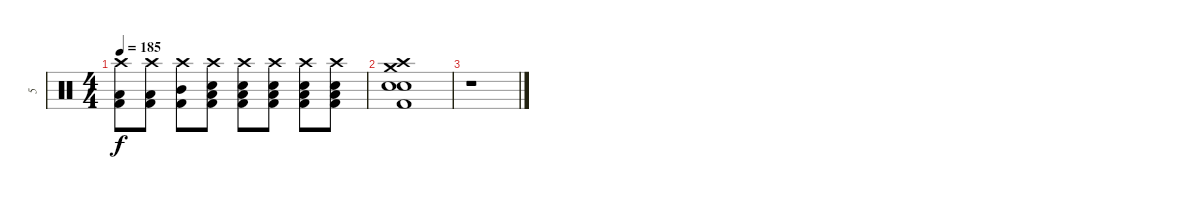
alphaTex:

\track ("5" "5") {instrument percussion}
\staff {score}
\articulation defaults
\ts (4 4)
\tempo 185
\clef neutral
\ks c
("Crash high (hit)" "Kick (hit) 2" "Low Tom (hit)").8{dy f} ("Crash high (hit)" "Kick (hit) 2" "Low Tom (hit)").8 ("Crash high (hit)" "Kick (hit) 2" "Mid Tom (hit)").8 ("Crash high (hit)" "Kick (hit) 2" "Low Tom (hit)" "Electric Snare (hit)").8 ("Crash high (hit)" "Kick (hit) 2" "Low Tom (hit)" "Electric Snare (hit)").8 ("Crash high (hit)" "Kick (hit) 2" "Low Tom (hit)" "Electric Snare (hit)").8 ("Crash high (hit)" "Kick (hit) 2" "Low Tom (hit)" "Electric Snare (hit)").8 ("Crash high (hit)" "Kick (hit) 2" "Low Tom (hit)" "Electric Snare (hit)").8 |
("Crash medium (hit)" "Kick (hit) 2" "Snare (hit) 2" "Electric Snare (hit)" "Crash high (hit)").1 |
r.1
